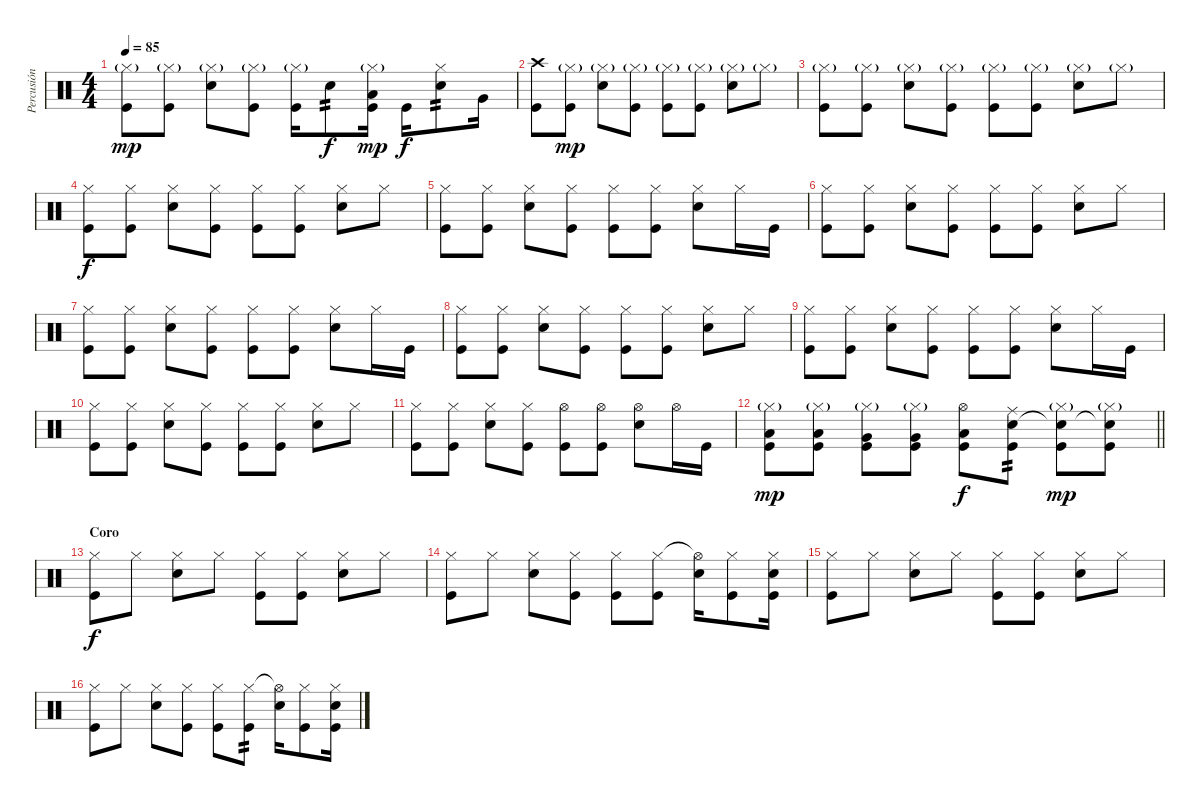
\track ("Percusión" "Percusión") {instrument percussion}
\staff {score}
\articulation defaults
\ts (4 4)
\tempo 85
\clef neutral
\ks c
("Hi-Hat (closed)"{g} "Kick (hit)").8{dy mp} ("Hi-Hat (closed)"{g} "Kick (hit)").8 ("Hi-Hat (closed)"{g} "Electric Snare (hit)").8 ("Hi-Hat (closed)"{g} "Kick (hit)").8 ("Hi-Hat (closed)"{g} "Kick (hit)").16 "Electric Snare (hit)".8{tp 2 dy f} ("Hi-Hat (closed)"{g} "Low Floor Tom (hit)" "Kick (hit)").16{dy mp} "Kick (hit)".16{dy f} ("Hi-Hat (closed)" "Electric Snare (hit)").8{tp 2} "Very Low Tom (hit)".16 |
("Crash high (hit)" "Kick (hit)").8 ("Hi-Hat (closed)"{g} "Kick (hit)").8{dy mp} ("Hi-Hat (closed)"{g} "Electric Snare (hit)").8 ("Hi-Hat (closed)"{g} "Kick (hit)").8 ("Hi-Hat (closed)"{g} "Kick (hit)").8 ("Hi-Hat (closed)"{g} "Kick (hit)").8 ("Hi-Hat (closed)"{g} "Electric Snare (hit)").8 "Hi-Hat (closed)"{g}.8 |
("Hi-Hat (closed)"{g} "Kick (hit)").8 ("Hi-Hat (closed)"{g} "Kick (hit)").8 ("Hi-Hat (closed)"{g} "Electric Snare (hit)").8 ("Hi-Hat (closed)"{g} "Kick (hit)").8 ("Hi-Hat (closed)"{g} "Kick (hit)").8 ("Hi-Hat (closed)"{g} "Kick (hit)").8 ("Hi-Hat (closed)"{g} "Electric Snare (hit)").8 "Hi-Hat (closed)"{g}.8 |
("Hi-Hat (closed)" "Kick (hit)").8{dy f} ("Hi-Hat (closed)" "Kick (hit)").8 ("Hi-Hat (closed)" "Electric Snare (hit)").8 ("Hi-Hat (closed)" "Kick (hit)").8 ("Hi-Hat (closed)" "Kick (hit)").8 ("Hi-Hat (closed)" "Kick (hit)").8 ("Hi-Hat (closed)" "Electric Snare (hit)").8 "Hi-Hat (closed)".8 |
("Hi-Hat (closed)" "Kick (hit)").8 ("Hi-Hat (closed)" "Kick (hit)").8 ("Hi-Hat (closed)" "Electric Snare (hit)").8 ("Hi-Hat (closed)" "Kick (hit)").8 ("Hi-Hat (closed)" "Kick (hit)").8 ("Hi-Hat (closed)" "Kick (hit)").8 ("Hi-Hat (closed)" "Electric Snare (hit)").8 "Hi-Hat (closed)".16 "Kick (hit)".16 |
("Hi-Hat (closed)" "Kick (hit)").8 ("Hi-Hat (closed)" "Kick (hit)").8 ("Hi-Hat (closed)" "Electric Snare (hit)").8 ("Hi-Hat (closed)" "Kick (hit)").8 ("Hi-Hat (closed)" "Kick (hit)").8 ("Hi-Hat (closed)" "Kick (hit)").8 ("Hi-Hat (closed)" "Electric Snare (hit)").8 "Hi-Hat (closed)".8 |
("Hi-Hat (closed)" "Kick (hit)").8 ("Hi-Hat (closed)" "Kick (hit)").8 ("Hi-Hat (closed)" "Electric Snare (hit)").8 ("Hi-Hat (closed)" "Kick (hit)").8 ("Hi-Hat (closed)" "Kick (hit)").8 ("Hi-Hat (closed)" "Kick (hit)").8 ("Hi-Hat (closed)" "Electric Snare (hit)").8 "Hi-Hat (closed)".16 "Kick (hit)".16 |
("Hi-Hat (closed)" "Kick (hit)").8 ("Hi-Hat (closed)" "Kick (hit)").8 ("Hi-Hat (closed)" "Electric Snare (hit)").8 ("Hi-Hat (closed)" "Kick (hit)").8 ("Hi-Hat (closed)" "Kick (hit)").8 ("Hi-Hat (closed)" "Kick (hit)").8 ("Hi-Hat (closed)" "Electric Snare (hit)").8 "Hi-Hat (closed)".8 |
("Hi-Hat (closed)" "Kick (hit)").8 ("Hi-Hat (closed)" "Kick (hit)").8 ("Hi-Hat (closed)" "Electric Snare (hit)").8 ("Hi-Hat (closed)" "Kick (hit)").8 ("Hi-Hat (closed)" "Kick (hit)").8 ("Hi-Hat (closed)" "Kick (hit)").8 ("Hi-Hat (closed)" "Electric Snare (hit)").8 "Hi-Hat (closed)".16 "Kick (hit)".16 |
("Hi-Hat (closed)" "Kick (hit)").8 ("Hi-Hat (closed)" "Kick (hit)").8 ("Hi-Hat (closed)" "Electric Snare (hit)").8 ("Hi-Hat (closed)" "Kick (hit)").8 ("Hi-Hat (closed)" "Kick (hit)").8 ("Hi-Hat (closed)" "Kick (hit)").8 ("Hi-Hat (closed)" "Electric Snare (hit)").8 "Hi-Hat (closed)".8 |
("Hi-Hat (closed)" "Kick (hit)").8 ("Hi-Hat (closed)" "Kick (hit)").8 ("Hi-Hat (closed)" "Electric Snare (hit)").8 ("Hi-Hat (closed)" "Kick (hit)").8 ("Hi-Hat (open)" "Kick (hit)").8 ("Hi-Hat (open)" "Kick (hit)").8 ("Hi-Hat (open)" "Electric Snare (hit)").8 "Hi-Hat (open)".16 "Kick (hit)".16 |
\barLineRight lightlight
("Hi-Hat (closed)"{g} "Low Floor Tom (hit)" "Kick (hit)").8{dy mp} ("Hi-Hat (closed)"{g} "Low Floor Tom (hit)" "Kick (hit)").8 ("Hi-Hat (closed)"{g} "Very Low Tom (hit)" "Kick (hit)").8 ("Hi-Hat (closed)"{g} "Very Low Tom (hit)" "Kick (hit)").8 ("Hi-Hat (open)" "Low Tom (hit)" "Kick (hit)").8{dy f} ("Ride (middle)" "Electric Snare (hit)" "Kick (hit)").8{tp 2} ("Hi-Hat (closed)"{g} "Electric Snare (hit)"{t} "Kick (hit)").8{dy mp} ("Hi-Hat (closed)"{g} "Electric Snare (hit)"{t} "Kick (hit)").8 |
\section ("" "Coro")
("Hi-Hat (closed)" "Kick (hit)").8{dy f} "Hi-Hat (closed)".8 ("Hi-Hat (closed)" "Electric Snare (hit)").8 "Hi-Hat (closed)".8 ("Hi-Hat (closed)" "Kick (hit)").8 ("Hi-Hat (closed)" "Kick (hit)").8 ("Hi-Hat (closed)" "Electric Snare (hit)").8 "Hi-Hat (closed)".8 |
("Hi-Hat (closed)" "Kick (hit)").8 "Hi-Hat (closed)".8 ("Hi-Hat (closed)" "Electric Snare (hit)").8 ("Hi-Hat (closed)" "Kick (hit)").8 ("Hi-Hat (closed)" "Kick (hit)").8 ("Hi-Hat (closed)" "Kick (hit)").8 ("Hi-Hat (open)"{t} "Electric Snare (hit)").16 ("Hi-Hat (closed)" "Kick (hit)").8 ("Hi-Hat (closed)" "Electric Snare (hit)" "Kick (hit)").16 |
("Hi-Hat (closed)" "Kick (hit)").8 "Hi-Hat (closed)".8 ("Hi-Hat (closed)" "Electric Snare (hit)").8 "Hi-Hat (closed)".8 ("Hi-Hat (closed)" "Kick (hit)").8 ("Hi-Hat (closed)" "Kick (hit)").8 ("Hi-Hat (closed)" "Electric Snare (hit)").8 "Hi-Hat (closed)".8 |
("Hi-Hat (closed)" "Kick (hit)").8 "Hi-Hat (closed)".8 ("Hi-Hat (closed)" "Electric Snare (hit)").8 ("Hi-Hat (closed)" "Kick (hit)").8 ("Hi-Hat (closed)" "Kick (hit)").8 ("Hi-Hat (closed)" "Kick (hit)").8{tp 2} ("Hi-Hat (open)"{t} "Electric Snare (hit)").16 ("Hi-Hat (closed)" "Kick (hit)").8 ("Hi-Hat (closed)" "Electric Snare (hit)" "Kick (hit)").16
